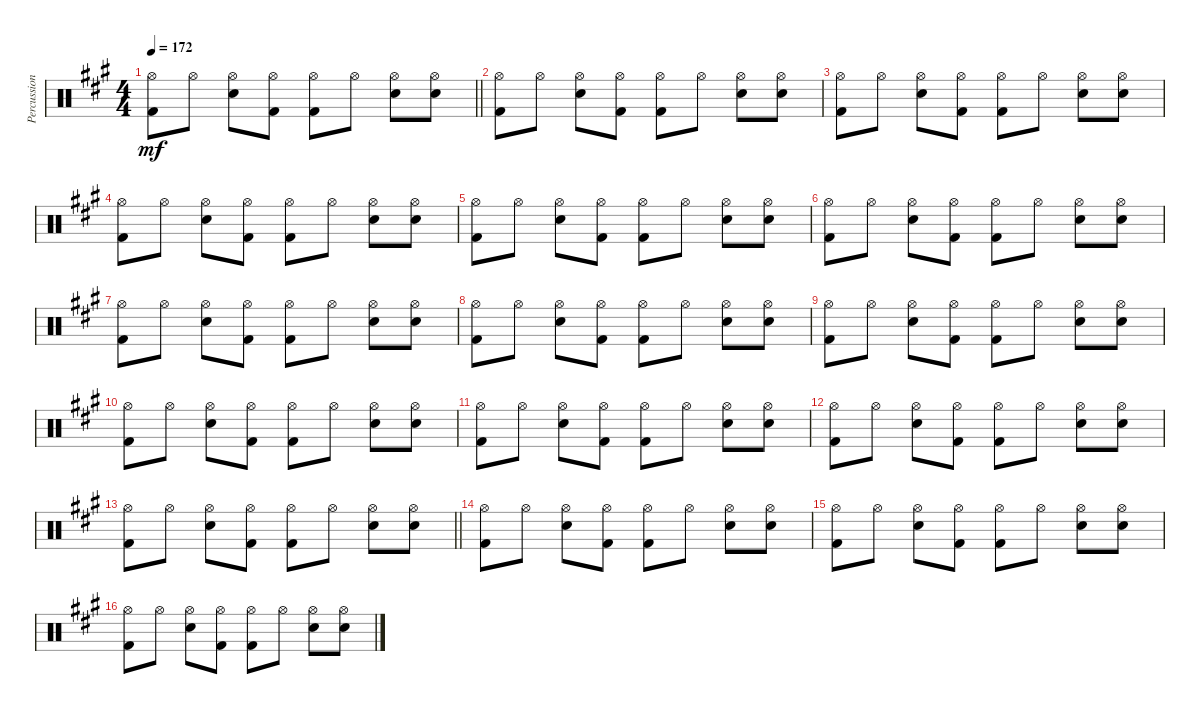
\track ("Percussion" "Percussion") {instrument percussion}
\staff {score}
\articulation defaults
\ts (4 4)
\tempo 172
\clef neutral
\barLineRight lightlight
\ks a
("Hi-Hat (open)" "Kick (hit) 2").8{dy mf} "Hi-Hat (open)".8 ("Hi-Hat (open)" "Snare (hit) 2").8 ("Hi-Hat (open)" "Kick (hit) 2").8 ("Hi-Hat (open)" "Kick (hit) 2").8 "Hi-Hat (open)".8 ("Hi-Hat (open)" "Snare (hit) 2").8 ("Hi-Hat (open)" "Snare (hit) 2").8 |
("Hi-Hat (open)" "Kick (hit) 2").8 "Hi-Hat (open)".8 ("Hi-Hat (open)" "Snare (hit) 2").8 ("Hi-Hat (open)" "Kick (hit) 2").8 ("Hi-Hat (open)" "Kick (hit) 2").8 "Hi-Hat (open)".8 ("Hi-Hat (open)" "Snare (hit) 2").8 ("Hi-Hat (open)" "Snare (hit) 2").8 |
("Hi-Hat (open)" "Kick (hit) 2").8 "Hi-Hat (open)".8 ("Hi-Hat (open)" "Snare (hit) 2").8 ("Hi-Hat (open)" "Kick (hit) 2").8 ("Hi-Hat (open)" "Kick (hit) 2").8 "Hi-Hat (open)".8 ("Hi-Hat (open)" "Snare (hit) 2").8 ("Hi-Hat (open)" "Snare (hit) 2").8 |
("Hi-Hat (open)" "Kick (hit) 2").8 "Hi-Hat (open)".8 ("Hi-Hat (open)" "Snare (hit) 2").8 ("Hi-Hat (open)" "Kick (hit) 2").8 ("Hi-Hat (open)" "Kick (hit) 2").8 "Hi-Hat (open)".8 ("Hi-Hat (open)" "Snare (hit) 2").8 ("Hi-Hat (open)" "Snare (hit) 2").8 |
("Hi-Hat (open)" "Kick (hit) 2").8 "Hi-Hat (open)".8 ("Hi-Hat (open)" "Snare (hit) 2").8 ("Hi-Hat (open)" "Kick (hit) 2").8 ("Hi-Hat (open)" "Kick (hit) 2").8 "Hi-Hat (open)".8 ("Hi-Hat (open)" "Snare (hit) 2").8 ("Hi-Hat (open)" "Snare (hit) 2").8 |
("Hi-Hat (open)" "Kick (hit) 2").8 "Hi-Hat (open)".8 ("Hi-Hat (open)" "Snare (hit) 2").8 ("Hi-Hat (open)" "Kick (hit) 2").8 ("Hi-Hat (open)" "Kick (hit) 2").8 "Hi-Hat (open)".8 ("Hi-Hat (open)" "Snare (hit) 2").8 ("Hi-Hat (open)" "Snare (hit) 2").8 |
("Hi-Hat (open)" "Kick (hit) 2").8 "Hi-Hat (open)".8 ("Hi-Hat (open)" "Snare (hit) 2").8 ("Hi-Hat (open)" "Kick (hit) 2").8 ("Hi-Hat (open)" "Kick (hit) 2").8 "Hi-Hat (open)".8 ("Hi-Hat (open)" "Snare (hit) 2").8 ("Hi-Hat (open)" "Snare (hit) 2").8 |
("Hi-Hat (open)" "Kick (hit) 2").8 "Hi-Hat (open)".8 ("Hi-Hat (open)" "Snare (hit) 2").8 ("Hi-Hat (open)" "Kick (hit) 2").8 ("Hi-Hat (open)" "Kick (hit) 2").8 "Hi-Hat (open)".8 ("Hi-Hat (open)" "Snare (hit) 2").8 ("Hi-Hat (open)" "Snare (hit) 2").8 |
("Hi-Hat (open)" "Kick (hit) 2").8 "Hi-Hat (open)".8 ("Hi-Hat (open)" "Snare (hit) 2").8 ("Hi-Hat (open)" "Kick (hit) 2").8 ("Hi-Hat (open)" "Kick (hit) 2").8 "Hi-Hat (open)".8 ("Hi-Hat (open)" "Snare (hit) 2").8 ("Hi-Hat (open)" "Snare (hit) 2").8 |
("Hi-Hat (open)" "Kick (hit) 2").8 "Hi-Hat (open)".8 ("Hi-Hat (open)" "Snare (hit) 2").8 ("Hi-Hat (open)" "Kick (hit) 2").8 ("Hi-Hat (open)" "Kick (hit) 2").8 "Hi-Hat (open)".8 ("Hi-Hat (open)" "Snare (hit) 2").8 ("Hi-Hat (open)" "Snare (hit) 2").8 |
("Hi-Hat (open)" "Kick (hit) 2").8 "Hi-Hat (open)".8 ("Hi-Hat (open)" "Snare (hit) 2").8 ("Hi-Hat (open)" "Kick (hit) 2").8 ("Hi-Hat (open)" "Kick (hit) 2").8 "Hi-Hat (open)".8 ("Hi-Hat (open)" "Snare (hit) 2").8 ("Hi-Hat (open)" "Snare (hit) 2").8 |
("Hi-Hat (open)" "Kick (hit) 2").8 "Hi-Hat (open)".8 ("Hi-Hat (open)" "Snare (hit) 2").8 ("Hi-Hat (open)" "Kick (hit) 2").8 ("Hi-Hat (open)" "Kick (hit) 2").8 "Hi-Hat (open)".8 ("Hi-Hat (open)" "Snare (hit) 2").8 ("Hi-Hat (open)" "Snare (hit) 2").8 |
\barLineRight lightlight
("Hi-Hat (open)" "Kick (hit) 2").8 "Hi-Hat (open)".8 ("Hi-Hat (open)" "Snare (hit) 2").8 ("Hi-Hat (open)" "Kick (hit) 2").8 ("Hi-Hat (open)" "Kick (hit) 2").8 "Hi-Hat (open)".8 ("Hi-Hat (open)" "Snare (hit) 2").8 ("Hi-Hat (open)" "Snare (hit) 2").8 |
("Hi-Hat (open)" "Kick (hit) 2").8 "Hi-Hat (open)".8 ("Hi-Hat (open)" "Snare (hit) 2").8 ("Hi-Hat (open)" "Kick (hit) 2").8 ("Hi-Hat (open)" "Kick (hit) 2").8 "Hi-Hat (open)".8 ("Hi-Hat (open)" "Snare (hit) 2").8 ("Hi-Hat (open)" "Snare (hit) 2").8 |
("Hi-Hat (open)" "Kick (hit) 2").8 "Hi-Hat (open)".8 ("Hi-Hat (open)" "Snare (hit) 2").8 ("Hi-Hat (open)" "Kick (hit) 2").8 ("Hi-Hat (open)" "Kick (hit) 2").8 "Hi-Hat (open)".8 ("Hi-Hat (open)" "Snare (hit) 2").8 ("Hi-Hat (open)" "Snare (hit) 2").8 |
("Hi-Hat (open)" "Kick (hit) 2").8 "Hi-Hat (open)".8 ("Hi-Hat (open)" "Snare (hit) 2").8 ("Hi-Hat (open)" "Kick (hit) 2").8 ("Hi-Hat (open)" "Kick (hit) 2").8 "Hi-Hat (open)".8 ("Hi-Hat (open)" "Snare (hit) 2").8 ("Hi-Hat (open)" "Snare (hit) 2").8
